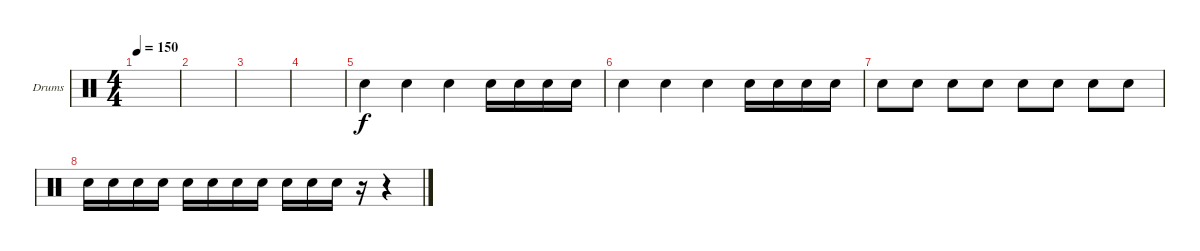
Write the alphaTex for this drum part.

\bracketExtendMode groupsimilarinstruments
\firstSystemTrackNameOrientation horizontal
\otherSystemsTrackNameOrientation horizontal
\track ("Drumkit" "Drums") {instrument percussion}
\staff {score}
\articulation defaults
\ts (4 4)
\tempo 150
\clef neutral
\ks c
|
|
|
|
"Snare (hit) 2".4 "Snare (hit) 2".4 "Snare (hit) 2".4 "Snare (hit) 2".16 "Snare (hit) 2".16 "Snare (hit) 2".16 "Snare (hit) 2".16 |
"Snare (hit) 2".4 "Snare (hit) 2".4 "Snare (hit) 2".4 "Snare (hit) 2".16 "Snare (hit) 2".16 "Snare (hit) 2".16 "Snare (hit) 2".16 |
"Snare (hit) 2".8 "Snare (hit) 2".8 "Snare (hit) 2".8 "Snare (hit) 2".8 "Snare (hit) 2".8 "Snare (hit) 2".8 "Snare (hit) 2".8 "Snare (hit) 2".8 |
"Snare (hit) 2".16 "Snare (hit) 2".16 "Snare (hit) 2".16 "Snare (hit) 2".16 "Snare (hit) 2".16 "Snare (hit) 2".16 "Snare (hit) 2".16 "Snare (hit) 2".16 "Snare (hit) 2".16 "Snare (hit) 2".16 "Snare (hit) 2".16 r.16 r.4
